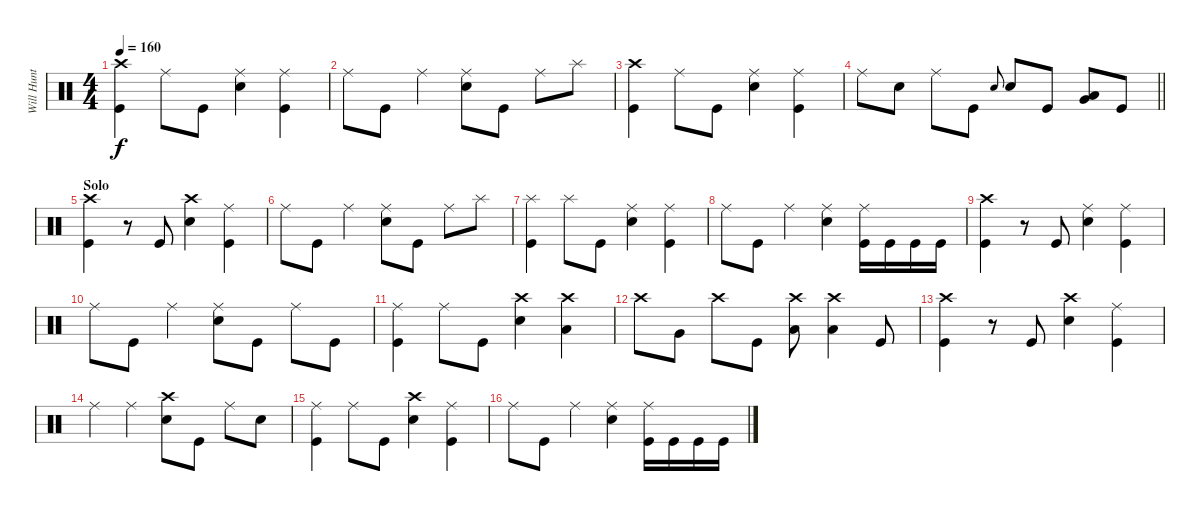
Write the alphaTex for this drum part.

\track ("Will Hunt" "Will Hunt") {instrument percussion}
\staff {score}
\articulation defaults
\ts (4 4)
\tempo 160
\clef neutral
\ks c
("Crash high (hit)" "Kick (hit)").4{dy f} "Ride (middle)".8 "Kick (hit)".8 ("Ride (middle)" "Snare (hit) 2").4 ("Ride (middle)" "Kick (hit)").4 |
"Ride (middle)".8 "Kick (hit)".8 "Ride (middle)".4 ("Ride (middle)" "Snare (hit) 2").8 "Kick (hit)".8 "Ride (middle)".8 "Splash (hit)".8 |
("Crash high (hit)" "Kick (hit)").4 "Ride (middle)".8 "Kick (hit)".8 ("Ride (middle)" "Snare (hit) 2").4 ("Ride (middle)" "Kick (hit)").4 |
\barLineRight lightlight "Ride (middle)".8 "Snare (hit) 2".8 "Ride (middle)".8 "Kick (hit)".8 "Snare (hit) 2".8{gr onbeat} "Snare (hit) 2".8 "Kick (hit)".8
("Very Low Tom (hit)" "Low Floor Tom (hit)").8 "Kick (hit)".8 |
\section ("" "Solo")
("Crash high (hit)" "Kick (hit)").4 r.8 "Kick (hit)".8 ("Crash high (hit)" "Snare (hit) 2").4 ("Ride (middle)" "Kick (hit)").4 |
"Ride (middle)".8 "Kick (hit)".8 "Ride (middle)".4 ("Ride (middle)" "Snare (hit) 2").8 "Kick (hit)".8 "Ride (middle)".8 "Splash (hit)".8 |
("Splash (hit)" "Kick (hit)").4 "Splash (hit)".8 "Kick (hit)".8 ("Ride (middle)" "Snare (hit) 2").4 ("Ride (middle)" "Kick (hit)").4 |
"Ride (middle)".8 "Kick (hit)".8 "Ride (middle)".4 ("Ride (middle)" "Snare (hit) 2").4 ("Ride (middle)" "Kick (hit)").16 "Kick (hit)".16 "Kick (hit)".16 "Kick (hit)".16 |
("Crash high (hit)" "Kick (hit)").4 r.8 "Kick (hit)".8 ("Ride (middle)" "Snare (hit) 2").4 ("Ride (middle)" "Kick (hit)").4 |
"Ride (middle)".8 "Kick (hit)".8 "Ride (middle)".4 ("Ride (middle)" "Snare (hit) 2").8 "Kick (hit)".8 "Ride (middle)".8 "Kick (hit)".8 |
("Ride (middle)" "Kick (hit)").4 "Ride (middle)".8 "Kick (hit)".8 ("Crash high (hit)" "Snare (hit) 2").4 ("Crash high (hit)" "Low Tom (hit)").4 |
"Crash high (hit)".8 "Very Low Tom (hit)".8 "Crash high (hit)".8 "Kick (hit)".8 ("Crash high (hit)" "Low Floor Tom (hit)").8 ("Crash high (hit)" "Low Floor Tom (hit)").4 "Kick (hit)".8 |
("Crash high (hit)" "Kick (hit)").4 r.8 "Kick (hit)".8 ("Crash high (hit)" "Snare (hit) 2").4 ("Ride (middle)" "Kick (hit)").4 |
"Ride (middle)".4 "Ride (middle)".4 ("Crash high (hit)" "Snare (hit) 2").8 "Kick (hit)".8 "Ride (middle)".8 "Snare (hit) 2".8 |
("Ride (middle)" "Kick (hit)").4 "Ride (middle)".8 "Kick (hit)".8 ("Crash high (hit)" "Snare (hit) 2").4 ("Ride (middle)" "Kick (hit)").4 |
"Ride (middle)".8 "Kick (hit)".8 "Ride (middle)".4 ("Ride (middle)" "Snare (hit) 2").4 ("Ride (middle)" "Kick (hit)").16 "Kick (hit)".16 "Kick (hit)".16 "Kick (hit)".16
